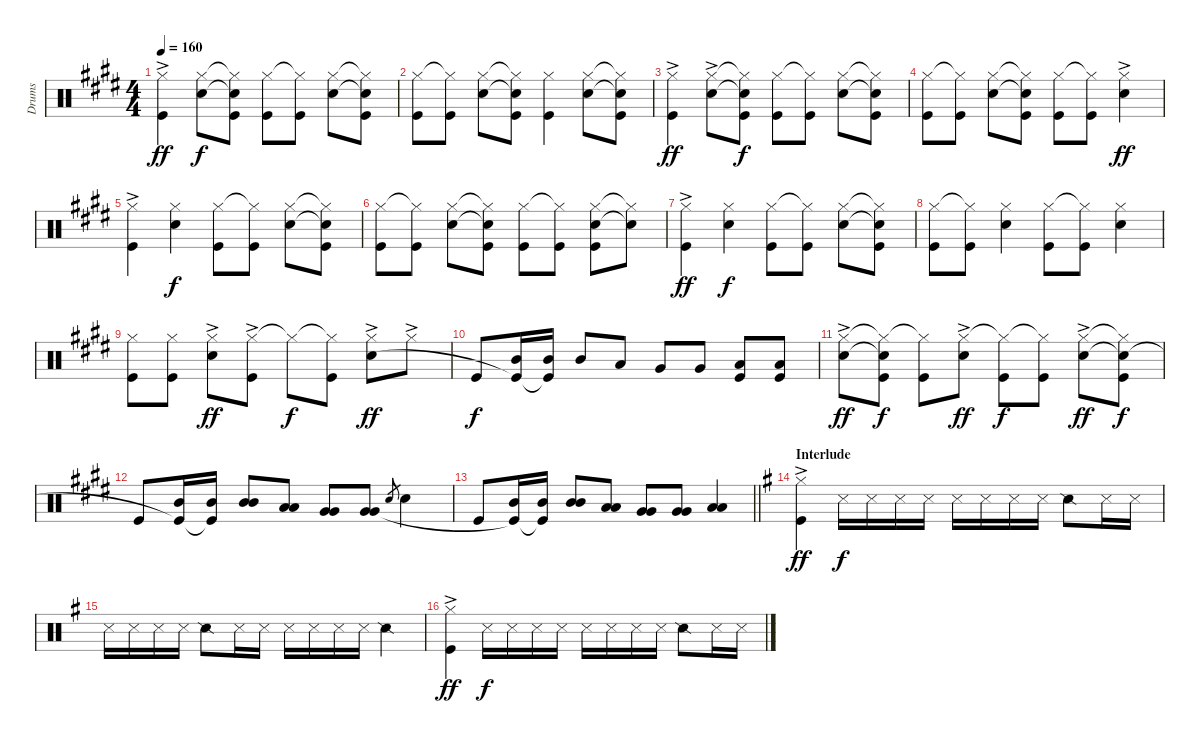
\track ("Drums" "Drums") {instrument percussion}
\staff {score}
\articulation defaults
\ts (4 4)
\tempo 160
\clef neutral
\ks e
("Hi-Hat (closed)"{ac} "Kick (hit)").4{dy ff} ("Hi-Hat (closed)" "Snare (hit) 2").8{dy f} ("Hi-Hat (closed)"{t} "Snare (hit) 2"{t} "Kick (hit)").8 ("Hi-Hat (closed)" "Kick (hit)").8 ("Hi-Hat (closed)"{t} "Kick (hit)").8 ("Hi-Hat (closed)" "Snare (hit) 2").8 ("Hi-Hat (closed)"{t} "Snare (hit) 2"{t} "Kick (hit)").8 |
("Hi-Hat (closed)" "Kick (hit)").8 ("Hi-Hat (closed)"{t} "Kick (hit)").8 ("Hi-Hat (closed)" "Snare (hit) 2").8 ("Hi-Hat (closed)"{t} "Snare (hit) 2"{t} "Kick (hit)").8 ("Hi-Hat (closed)" "Kick (hit)").4 ("Hi-Hat (closed)" "Snare (hit) 2").8 ("Hi-Hat (closed)"{t} "Snare (hit) 2"{t} "Kick (hit)").8 |
("Hi-Hat (closed)"{ac} "Kick (hit)").4{dy ff} ("Hi-Hat (closed)"{ac} "Snare (hit) 2").8 ("Hi-Hat (closed)"{t} "Snare (hit) 2"{t} "Kick (hit)").8{dy f} ("Hi-Hat (closed)" "Kick (hit)").8 ("Hi-Hat (closed)"{t} "Kick (hit)").8 ("Hi-Hat (closed)" "Snare (hit) 2").8 ("Hi-Hat (closed)"{t} "Snare (hit) 2"{t} "Kick (hit)").8 |
("Hi-Hat (closed)" "Kick (hit)").8 ("Hi-Hat (closed)"{t} "Kick (hit)").8 ("Hi-Hat (closed)" "Snare (hit) 2").8 ("Hi-Hat (closed)"{t} "Snare (hit) 2"{t} "Kick (hit)").8 ("Hi-Hat (closed)" "Kick (hit)").8 ("Hi-Hat (closed)"{t} "Kick (hit)").8 ("Hi-Hat (closed)"{ac} "Snare (hit) 2").4{dy ff} |
("Hi-Hat (closed)"{ac} "Kick (hit)").4 ("Hi-Hat (closed)" "Snare (hit) 2").4{dy f} ("Hi-Hat (closed)" "Kick (hit)").8 ("Hi-Hat (closed)"{t} "Kick (hit)").8 ("Hi-Hat (closed)" "Snare (hit) 2").8 ("Hi-Hat (closed)"{t} "Snare (hit) 2"{t} "Kick (hit)").8 |
("Hi-Hat (closed)" "Kick (hit)").8 ("Hi-Hat (closed)"{t} "Kick (hit)").8 ("Hi-Hat (closed)" "Snare (hit) 2").8 ("Hi-Hat (closed)"{t} "Snare (hit) 2"{t} "Kick (hit)").8 ("Hi-Hat (closed)" "Kick (hit)").8 ("Hi-Hat (closed)"{t} "Kick (hit)").8 ("Hi-Hat (closed)" "Snare (hit) 2" "Kick (hit)").8 ("Hi-Hat (closed)"{t} "Snare (hit) 2"{t}).8 |
("Hi-Hat (closed)"{ac} "Kick (hit)").4{dy ff} ("Hi-Hat (closed)" "Snare (hit) 2").4{dy f} ("Hi-Hat (closed)" "Kick (hit)").8 ("Hi-Hat (closed)"{t} "Kick (hit)").8 ("Hi-Hat (closed)" "Snare (hit) 2").8 ("Hi-Hat (closed)"{t} "Snare (hit) 2"{t} "Kick (hit)").8 |
("Hi-Hat (closed)" "Kick (hit)").8 ("Hi-Hat (closed)"{t} "Kick (hit)").8 ("Hi-Hat (closed)" "Snare (hit) 2").4 ("Hi-Hat (closed)" "Kick (hit)").8 ("Hi-Hat (closed)"{t} "Kick (hit)").8 ("Hi-Hat (closed)" "Snare (hit) 2").4 |
("Hi-Hat (closed)" "Kick (hit)").8 ("Hi-Hat (closed)" "Kick (hit)").8 ("Hi-Hat (closed)"{ac} "Snare (hit) 2").8{dy ff} ("Hi-Hat (closed)"{ac} "Kick (hit)").8 "Hi-Hat (closed)"{t}.8{dy f} ("Hi-Hat (closed)"{t} "Kick (hit)").8 ("Hi-Hat (closed)"{ac} "Snare (hit) 2").8{dy ff} "Hi-Hat (closed)"{ac}.8 |
"Kick (hit)".8{dy f} ("Mid Tom (hit)" "Kick (hit)"{t}).16 ("Mid Tom (hit)" "Kick (hit)"{t}).16 "Mid Tom (hit)".8 "Low Tom (hit)".8 "Very Low Tom (hit)".8 "Very Low Tom (hit)".8 ("Low Floor Tom (hit)" "Kick (hit)").8 ("Low Floor Tom (hit)" "Kick (hit)").8 |
("Hi-Hat (closed)"{ac} "Snare (hit) 2").8{dy ff} ("Hi-Hat (closed)"{t} "Snare (hit)"{t} "Kick (hit)").8{dy f} ("Hi-Hat (closed)"{t} "Kick (hit)").8 ("Hi-Hat (closed)"{ac} "Snare (hit) 2").8{dy ff} ("Hi-Hat (closed)"{t} "Kick (hit)").8{dy f} ("Hi-Hat (closed)"{t} "Kick (hit)").8 ("Hi-Hat (closed)"{ac} "Snare (hit) 2").8{dy ff} ("Hi-Hat (closed)"{t} "Snare (hit) 2"{t} "Kick (hit)").8{dy f} |
"Kick (hit)".8 ("Mid Tom (hit)" "Kick (hit)"{t}).16 ("Mid Tom (hit)" "Kick (hit)"{t}).16 ("Mid Tom (hit)" "Mid Tom (hit)").8 ("Low Tom (hit)" "Low Tom (hit)").8 ("Very Low Tom (hit)" "Very Low Tom (hit)").8 ("Very Low Tom (hit)" "Very Low Tom (hit)").8 "Snare (hit) 2".8{gr} "Snare (hit) 2".4 |
\barLineRight lightlight "Kick (hit)".8
("Mid Tom (hit)" "Kick (hit)"{t}).16 ("Mid Tom (hit)" "Kick (hit)"{t}).16 ("Mid Tom (hit)" "Mid Tom (hit)").8 ("Low Tom (hit)" "Low Tom (hit)").8 ("Very Low Tom (hit)" "Very Low Tom (hit)").8 ("Very Low Tom (hit)" "Very Low Tom (hit)").8 ("Low Floor Tom (hit)" "Low Floor Tom (hit)").4 |
\section ("" "Interlude")
\ks g
("Hi-Hat (closed)"{ac} "Kick (hit)").4{dy ff} "Snare (side stick) 3".16{dy f} "Snare (side stick) 3".16 "Snare (side stick) 3".16 "Snare (side stick) 3".16 "Snare (side stick) 3".16 "Snare (side stick) 3".16 "Snare (side stick) 3".16 "Snare (side stick) 3".16 "Snare (side stick) 2".8 "Snare (side stick) 3".16 "Snare (side stick) 3".16 |
"Snare (side stick) 3".16 "Snare (side stick) 3".16 "Snare (side stick) 3".16 "Snare (side stick) 3".16 "Snare (side stick) 2".8 "Snare (side stick) 3".16 "Snare (side stick) 3".16 "Snare (side stick) 3".16 "Snare (side stick) 3".16 "Snare (side stick) 3".16 "Snare (side stick) 3".16 "Snare (side stick) 2".4 |
("Hi-Hat (closed)"{ac} "Kick (hit)").4{dy ff} "Snare (side stick) 3".16{dy f} "Snare (side stick) 3".16 "Snare (side stick) 3".16 "Snare (side stick) 3".16 "Snare (side stick) 3".16 "Snare (side stick) 3".16 "Snare (side stick) 3".16 "Snare (side stick) 3".16 "Snare (side stick) 2".8 "Snare (side stick) 3".16 "Snare (side stick) 3".16
